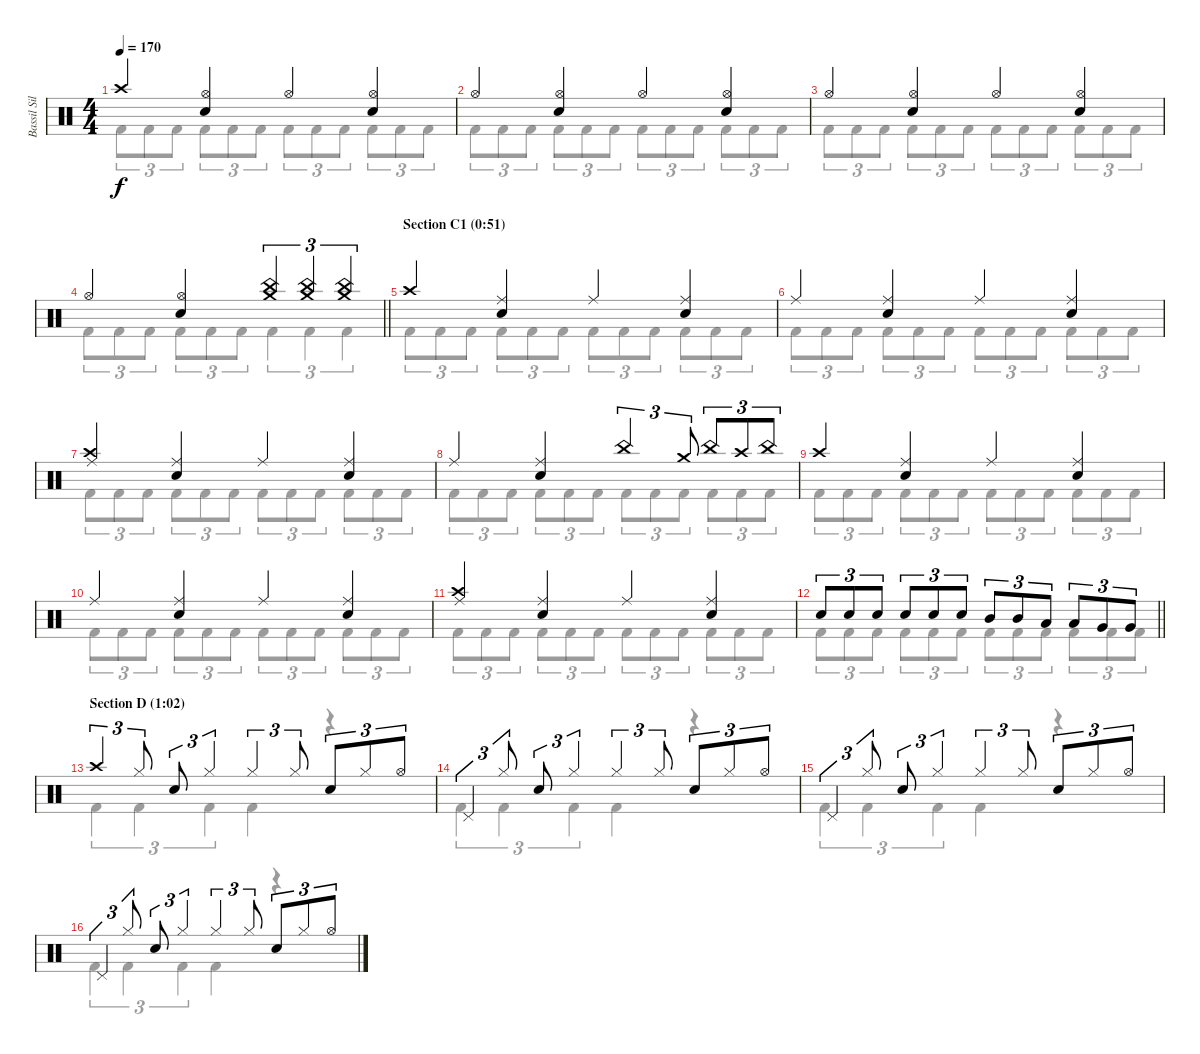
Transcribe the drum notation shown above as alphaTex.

\track ("Bassil Silver-Hajo" "Bassil Sil") {instrument percussion}
\staff {score}
\articulation defaults
\voice
\ts (4 4)
\tempo 170
\clef neutral
\ks c "Crash high (hit)".4{dy f}
("Hi-Hat (open)" "Snare (hit) 2").4 "Hi-Hat (open)".4 ("Hi-Hat (open)" "Snare (hit) 2").4 |
"Hi-Hat (open)".4 ("Hi-Hat (open)" "Snare (hit) 2").4 "Hi-Hat (open)".4 ("Hi-Hat (open)" "Snare (hit) 2").4 |
"Hi-Hat (open)".4 ("Hi-Hat (open)" "Snare (hit) 2").4 "Hi-Hat (open)".4 ("Hi-Hat (open)" "Snare (hit) 2").4 |
\barLineRight lightlight "Hi-Hat (open)".4
("Hi-Hat (open)" "Snare (hit) 2").4 ("China (hit)" "Crash medium (hit)").4{tu (3 2)} ("China (hit)" "Crash medium (hit)").4{tu (3 2)} ("China (hit)" "Crash medium (hit)").4{tu (3 2)} |
\section ("" "Section C1 (0:51)")
"Crash high (hit)".4 ("Ride (middle)" "Snare (hit) 2").4 "Ride (middle)".4 ("Ride (middle)" "Snare (hit) 2").4 |
"Ride (middle)".4 ("Ride (middle)" "Snare (hit) 2").4 "Ride (middle)".4 ("Ride (middle)" "Snare (hit) 2").4 |
("Crash high (hit)" "Ride (middle)").4 ("Ride (middle)" "Snare (hit) 2").4 "Ride (middle)".4 ("Ride (middle)" "Snare (hit) 2").4 |
"Ride (middle)".4 ("Ride (middle)" "Snare (hit) 2").4 "China (hit)".4{tu (3 2)} "Crash medium (hit)".8{tu (3 2)} "China (hit)".8{tu (3 2)} "Crash high (hit)".8{tu (3 2)} "China (hit)".8{tu (3 2)} |
"Crash high (hit)".4 ("Ride (middle)" "Snare (hit) 2").4 "Ride (middle)".4 ("Ride (middle)" "Snare (hit) 2").4 |
"Ride (middle)".4 ("Ride (middle)" "Snare (hit) 2").4 "Ride (middle)".4 ("Ride (middle)" "Snare (hit) 2").4 |
("Crash high (hit)" "Ride (middle)").4 ("Ride (middle)" "Snare (hit) 2").4 "Ride (middle)".4 ("Ride (middle)" "Snare (hit) 2").4 |
\barLineRight lightlight "Snare (hit) 2".8{tu (3 2)} "Snare (hit) 2".8{tu (3 2)} "Snare (hit) 2".8{tu (3 2)} "Snare (hit) 2".8{tu (3 2)} "Snare (hit) 2".8{tu (3 2)} "Snare (hit) 2".8{tu (3 2)} "Mid Tom (hit)".8{tu (3 2)} "Mid Tom (hit)".8{tu (3 2)} "Low Tom (hit)".8{tu (3 2)} "Low Tom (hit)".8{tu (3 2)} "Very Low Tom (hit)".8{tu (3 2)} "Very Low Tom (hit)".8{tu (3 2)}
|
\section ("" "Section D (1:02)")
"Crash high (hit)".4{tu (3 2)} "Hi-Hat (closed)".8{tu (3 2)} "Snare (hit) 2".8{tu (3 2)} "Hi-Hat (closed)".4{tu (3 2)} "Hi-Hat (closed)".4{tu (3 2)} "Hi-Hat (closed)".8{tu (3 2)} "Snare (hit) 2".8{tu (3 2)} "Hi-Hat (closed)".8{tu (3 2)} "Hi-Hat (open)".8{tu (3 2)} |
"Pedal Hi-Hat (hit)".4{tu (3 2)} "Hi-Hat (closed)".8{tu (3 2)} "Snare (hit) 2".8{tu (3 2)} "Hi-Hat (closed)".4{tu (3 2)} "Hi-Hat (closed)".4{tu (3 2)} "Hi-Hat (closed)".8{tu (3 2)} "Snare (hit) 2".8{tu (3 2)} "Hi-Hat (closed)".8{tu (3 2)} "Hi-Hat (open)".8{tu (3 2)} |
"Pedal Hi-Hat (hit)".4{tu (3 2)} "Hi-Hat (closed)".8{tu (3 2)} "Snare (hit) 2".8{tu (3 2)} "Hi-Hat (closed)".4{tu (3 2)} "Hi-Hat (closed)".4{tu (3 2)} "Hi-Hat (closed)".8{tu (3 2)} "Snare (hit) 2".8{tu (3 2)} "Hi-Hat (closed)".8{tu (3 2)} "Hi-Hat (open)".8{tu (3 2)} |
"Pedal Hi-Hat (hit)".4{tu (3 2)} "Hi-Hat (closed)".8{tu (3 2)} "Snare (hit) 2".8{tu (3 2)} "Hi-Hat (closed)".4{tu (3 2)} "Hi-Hat (closed)".4{tu (3 2)} "Hi-Hat (closed)".8{tu (3 2)} "Snare (hit) 2".8{tu (3 2)} "Hi-Hat (closed)".8{tu (3 2)} "Hi-Hat (open)".8{tu (3 2)}
\voice
\clef neutral
\ottava regular
\simile none
\ks c "Kick (hit) 2".8{tu (3 2) dy f} "Kick (hit) 2".8{tu (3 2)} "Kick (hit) 2".8{tu (3 2)} "Kick (hit) 2".8{tu (3 2)} "Kick (hit) 2".8{tu (3 2)} "Kick (hit) 2".8{tu (3 2)} "Kick (hit) 2".8{tu (3 2)} "Kick (hit) 2".8{tu (3 2)} "Kick (hit) 2".8{tu (3 2)} "Kick (hit) 2".8{tu (3 2)} "Kick (hit) 2".8{tu (3 2)} "Kick (hit) 2".8{tu (3 2)}
|
"Kick (hit) 2".8{tu (3 2)} "Kick (hit) 2".8{tu (3 2)} "Kick (hit) 2".8{tu (3 2)} "Kick (hit) 2".8{tu (3 2)} "Kick (hit) 2".8{tu (3 2)} "Kick (hit) 2".8{tu (3 2)} "Kick (hit) 2".8{tu (3 2)} "Kick (hit) 2".8{tu (3 2)} "Kick (hit) 2".8{tu (3 2)} "Kick (hit) 2".8{tu (3 2)} "Kick (hit) 2".8{tu (3 2)} "Kick (hit) 2".8{tu (3 2)} |
"Kick (hit) 2".8{tu (3 2)} "Kick (hit) 2".8{tu (3 2)} "Kick (hit) 2".8{tu (3 2)} "Kick (hit) 2".8{tu (3 2)} "Kick (hit) 2".8{tu (3 2)} "Kick (hit) 2".8{tu (3 2)} "Kick (hit) 2".8{tu (3 2)} "Kick (hit) 2".8{tu (3 2)} "Kick (hit) 2".8{tu (3 2)} "Kick (hit) 2".8{tu (3 2)} "Kick (hit) 2".8{tu (3 2)} "Kick (hit) 2".8{tu (3 2)} |
\barLineRight lightlight "Kick (hit) 2".8{tu (3 2)} "Kick (hit) 2".8{tu (3 2)} "Kick (hit) 2".8{tu (3 2)} "Kick (hit) 2".8{tu (3 2)} "Kick (hit) 2".8{tu (3 2)} "Kick (hit) 2".8{tu (3 2)} "Kick (hit) 2".4{tu (3 2)} "Kick (hit) 2".4{tu (3 2)} "Kick (hit) 2".4{tu (3 2)}
|
"Kick (hit) 2".8{tu (3 2)} "Kick (hit) 2".8{tu (3 2)} "Kick (hit) 2".8{tu (3 2)} "Kick (hit) 2".8{tu (3 2)} "Kick (hit) 2".8{tu (3 2)} "Kick (hit) 2".8{tu (3 2)} "Kick (hit) 2".8{tu (3 2)} "Kick (hit) 2".8{tu (3 2)} "Kick (hit) 2".8{tu (3 2)} "Kick (hit) 2".8{tu (3 2)} "Kick (hit) 2".8{tu (3 2)} "Kick (hit) 2".8{tu (3 2)} |
"Kick (hit) 2".8{tu (3 2)} "Kick (hit) 2".8{tu (3 2)} "Kick (hit) 2".8{tu (3 2)} "Kick (hit) 2".8{tu (3 2)} "Kick (hit) 2".8{tu (3 2)} "Kick (hit) 2".8{tu (3 2)} "Kick (hit) 2".8{tu (3 2)} "Kick (hit) 2".8{tu (3 2)} "Kick (hit) 2".8{tu (3 2)} "Kick (hit) 2".8{tu (3 2)} "Kick (hit) 2".8{tu (3 2)} "Kick (hit) 2".8{tu (3 2)} |
"Kick (hit) 2".8{tu (3 2)} "Kick (hit) 2".8{tu (3 2)} "Kick (hit) 2".8{tu (3 2)} "Kick (hit) 2".8{tu (3 2)} "Kick (hit) 2".8{tu (3 2)} "Kick (hit) 2".8{tu (3 2)} "Kick (hit) 2".8{tu (3 2)} "Kick (hit) 2".8{tu (3 2)} "Kick (hit) 2".8{tu (3 2)} "Kick (hit) 2".8{tu (3 2)} "Kick (hit) 2".8{tu (3 2)} "Kick (hit) 2".8{tu (3 2)} |
"Kick (hit) 2".8{tu (3 2)} "Kick (hit) 2".8{tu (3 2)} "Kick (hit) 2".8{tu (3 2)} "Kick (hit) 2".8{tu (3 2)} "Kick (hit) 2".8{tu (3 2)} "Kick (hit) 2".8{tu (3 2)} "Kick (hit) 2".8{tu (3 2)} "Kick (hit) 2".8{tu (3 2)} "Kick (hit) 2".8{tu (3 2)} "Kick (hit) 2".8{tu (3 2)} "Kick (hit) 2".8{tu (3 2)} "Kick (hit) 2".8{tu (3 2)} |
"Kick (hit) 2".8{tu (3 2)} "Kick (hit) 2".8{tu (3 2)} "Kick (hit) 2".8{tu (3 2)} "Kick (hit) 2".8{tu (3 2)} "Kick (hit) 2".8{tu (3 2)} "Kick (hit) 2".8{tu (3 2)} "Kick (hit) 2".8{tu (3 2)} "Kick (hit) 2".8{tu (3 2)} "Kick (hit) 2".8{tu (3 2)} "Kick (hit) 2".8{tu (3 2)} "Kick (hit) 2".8{tu (3 2)} "Kick (hit) 2".8{tu (3 2)} |
"Kick (hit) 2".8{tu (3 2)} "Kick (hit) 2".8{tu (3 2)} "Kick (hit) 2".8{tu (3 2)} "Kick (hit) 2".8{tu (3 2)} "Kick (hit) 2".8{tu (3 2)} "Kick (hit) 2".8{tu (3 2)} "Kick (hit) 2".8{tu (3 2)} "Kick (hit) 2".8{tu (3 2)} "Kick (hit) 2".8{tu (3 2)} "Kick (hit) 2".8{tu (3 2)} "Kick (hit) 2".8{tu (3 2)} "Kick (hit) 2".8{tu (3 2)} |
"Kick (hit) 2".8{tu (3 2)} "Kick (hit) 2".8{tu (3 2)} "Kick (hit) 2".8{tu (3 2)} "Kick (hit) 2".8{tu (3 2)} "Kick (hit) 2".8{tu (3 2)} "Kick (hit) 2".8{tu (3 2)} "Kick (hit) 2".8{tu (3 2)} "Kick (hit) 2".8{tu (3 2)} "Kick (hit) 2".8{tu (3 2)} "Kick (hit) 2".8{tu (3 2)} "Kick (hit) 2".8{tu (3 2)} "Kick (hit) 2".8{tu (3 2)} |
\barLineRight lightlight "Kick (hit) 2".8{tu (3 2)} "Kick (hit) 2".8{tu (3 2)} "Kick (hit) 2".8{tu (3 2)} "Kick (hit) 2".8{tu (3 2)} "Kick (hit) 2".8{tu (3 2)} "Kick (hit) 2".8{tu (3 2)} "Kick (hit) 2".8{tu (3 2)} "Kick (hit) 2".8{tu (3 2)} "Kick (hit) 2".8{tu (3 2)} "Kick (hit) 2".8{tu (3 2)} "Kick (hit) 2".8{tu (3 2)} "Kick (hit) 2".8{tu (3 2)}
|
"Kick (hit) 2".4{tu (3 2)} "Kick (hit) 2".4{tu (3 2)} "Kick (hit) 2".4{tu (3 2)} "Kick (hit) 2".4 r.4 |
"Kick (hit) 2".4{tu (3 2)} "Kick (hit) 2".4{tu (3 2)} "Kick (hit) 2".4{tu (3 2)} "Kick (hit) 2".4 r.4 |
"Kick (hit) 2".4{tu (3 2)} "Kick (hit) 2".4{tu (3 2)} "Kick (hit) 2".4{tu (3 2)} "Kick (hit) 2".4 r.4 |
"Kick (hit) 2".4{tu (3 2)} "Kick (hit) 2".4{tu (3 2)} "Kick (hit) 2".4{tu (3 2)} "Kick (hit) 2".4 r.4
